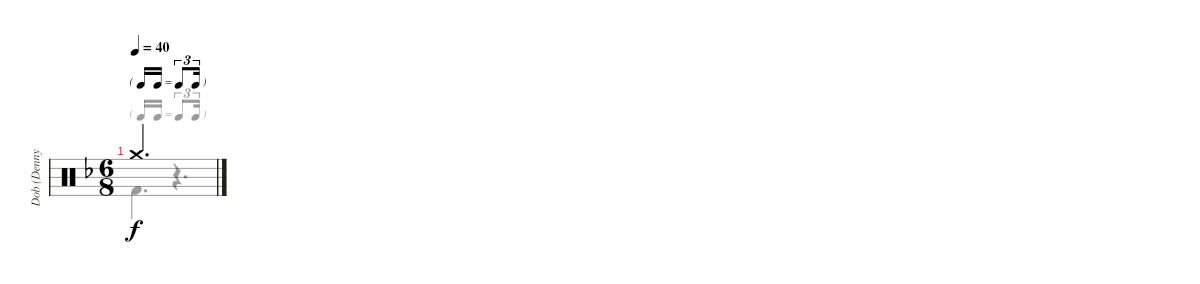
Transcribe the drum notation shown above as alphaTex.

\track ("Dob (Denny Carmassy)" "Dob (Denny") {instrument percussion}
\staff {score}
\articulation defaults
\voice
\ts (6 8)
\tf triplet16th
\tempo 40
\clef neutral
\ks f "Crash medium (hit)".2{d dy f}
|
\voice
\clef neutral
\ks f "Kick (hit) 2".4{d dy f}
r.4{d} |
